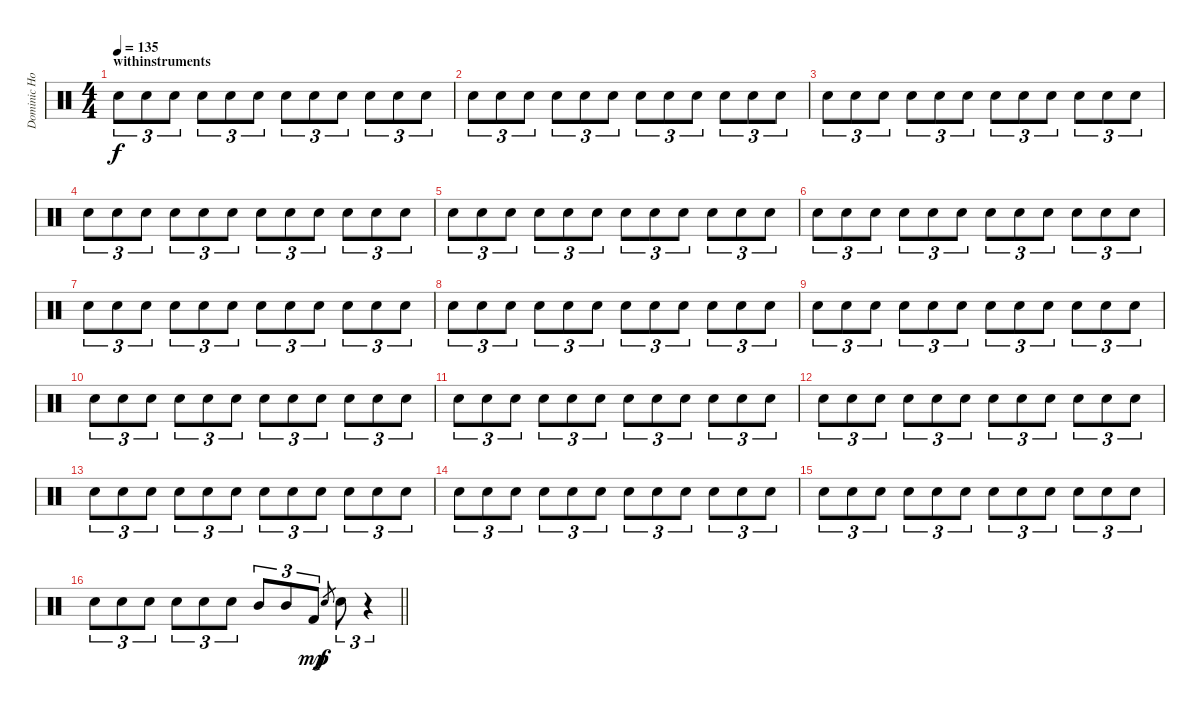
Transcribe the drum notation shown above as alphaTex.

\track ("Dominic Howard (Drums)" "Dominic Ho") {instrument percussion}
\staff {score}
\articulation defaults
\ts (4 4)
\section ("" "withinstruments")
\tempo 135
\clef neutral
\ks c "Electric Snare (hit)".8{tu (3 2) dy f volume 8} "Electric Snare (hit)".8{tu (3 2)} "Electric Snare (hit)".8{tu (3 2)} "Electric Snare (hit)".8{tu (3 2)} "Electric Snare (hit)".8{tu (3 2)} "Electric Snare (hit)".8{tu (3 2)} "Electric Snare (hit)".8{tu (3 2)} "Electric Snare (hit)".8{tu (3 2)} "Electric Snare (hit)".8{tu (3 2)} "Electric Snare (hit)".8{tu (3 2)} "Electric Snare (hit)".8{tu (3 2)} "Electric Snare (hit)".8{tu (3 2)}
|
"Electric Snare (hit)".8{tu (3 2)} "Electric Snare (hit)".8{tu (3 2)} "Electric Snare (hit)".8{tu (3 2)} "Electric Snare (hit)".8{tu (3 2)} "Electric Snare (hit)".8{tu (3 2)} "Electric Snare (hit)".8{tu (3 2)} "Electric Snare (hit)".8{tu (3 2)} "Electric Snare (hit)".8{tu (3 2)} "Electric Snare (hit)".8{tu (3 2)} "Electric Snare (hit)".8{tu (3 2)} "Electric Snare (hit)".8{tu (3 2)} "Electric Snare (hit)".8{tu (3 2)} |
"Electric Snare (hit)".8{tu (3 2) volume 9} "Electric Snare (hit)".8{tu (3 2)} "Electric Snare (hit)".8{tu (3 2)} "Electric Snare (hit)".8{tu (3 2)} "Electric Snare (hit)".8{tu (3 2)} "Electric Snare (hit)".8{tu (3 2)} "Electric Snare (hit)".8{tu (3 2)} "Electric Snare (hit)".8{tu (3 2)} "Electric Snare (hit)".8{tu (3 2)} "Electric Snare (hit)".8{tu (3 2)} "Electric Snare (hit)".8{tu (3 2)} "Electric Snare (hit)".8{tu (3 2)} |
"Electric Snare (hit)".8{tu (3 2)} "Electric Snare (hit)".8{tu (3 2)} "Electric Snare (hit)".8{tu (3 2)} "Electric Snare (hit)".8{tu (3 2)} "Electric Snare (hit)".8{tu (3 2)} "Electric Snare (hit)".8{tu (3 2)} "Electric Snare (hit)".8{tu (3 2)} "Electric Snare (hit)".8{tu (3 2)} "Electric Snare (hit)".8{tu (3 2)} "Electric Snare (hit)".8{tu (3 2)} "Electric Snare (hit)".8{tu (3 2)} "Electric Snare (hit)".8{tu (3 2)} |
"Electric Snare (hit)".8{tu (3 2) volume 10} "Electric Snare (hit)".8{tu (3 2)} "Electric Snare (hit)".8{tu (3 2)} "Electric Snare (hit)".8{tu (3 2)} "Electric Snare (hit)".8{tu (3 2)} "Electric Snare (hit)".8{tu (3 2)} "Electric Snare (hit)".8{tu (3 2)} "Electric Snare (hit)".8{tu (3 2)} "Electric Snare (hit)".8{tu (3 2)} "Electric Snare (hit)".8{tu (3 2)} "Electric Snare (hit)".8{tu (3 2)} "Electric Snare (hit)".8{tu (3 2)} |
"Electric Snare (hit)".8{tu (3 2)} "Electric Snare (hit)".8{tu (3 2)} "Electric Snare (hit)".8{tu (3 2)} "Electric Snare (hit)".8{tu (3 2)} "Electric Snare (hit)".8{tu (3 2)} "Electric Snare (hit)".8{tu (3 2)} "Electric Snare (hit)".8{tu (3 2)} "Electric Snare (hit)".8{tu (3 2)} "Electric Snare (hit)".8{tu (3 2)} "Electric Snare (hit)".8{tu (3 2)} "Electric Snare (hit)".8{tu (3 2)} "Electric Snare (hit)".8{tu (3 2)} |
"Electric Snare (hit)".8{tu (3 2) volume 11} "Electric Snare (hit)".8{tu (3 2)} "Electric Snare (hit)".8{tu (3 2)} "Electric Snare (hit)".8{tu (3 2)} "Electric Snare (hit)".8{tu (3 2)} "Electric Snare (hit)".8{tu (3 2)} "Electric Snare (hit)".8{tu (3 2)} "Electric Snare (hit)".8{tu (3 2)} "Electric Snare (hit)".8{tu (3 2)} "Electric Snare (hit)".8{tu (3 2)} "Electric Snare (hit)".8{tu (3 2)} "Electric Snare (hit)".8{tu (3 2)} |
"Electric Snare (hit)".8{tu (3 2)} "Electric Snare (hit)".8{tu (3 2)} "Electric Snare (hit)".8{tu (3 2)} "Electric Snare (hit)".8{tu (3 2)} "Electric Snare (hit)".8{tu (3 2)} "Electric Snare (hit)".8{tu (3 2)} "Electric Snare (hit)".8{tu (3 2)} "Electric Snare (hit)".8{tu (3 2)} "Electric Snare (hit)".8{tu (3 2)} "Electric Snare (hit)".8{tu (3 2)} "Electric Snare (hit)".8{tu (3 2)} "Electric Snare (hit)".8{tu (3 2)} |
"Electric Snare (hit)".8{tu (3 2) volume 12} "Electric Snare (hit)".8{tu (3 2)} "Electric Snare (hit)".8{tu (3 2)} "Electric Snare (hit)".8{tu (3 2)} "Electric Snare (hit)".8{tu (3 2)} "Electric Snare (hit)".8{tu (3 2)} "Electric Snare (hit)".8{tu (3 2)} "Electric Snare (hit)".8{tu (3 2)} "Electric Snare (hit)".8{tu (3 2)} "Electric Snare (hit)".8{tu (3 2)} "Electric Snare (hit)".8{tu (3 2)} "Electric Snare (hit)".8{tu (3 2)} |
"Electric Snare (hit)".8{tu (3 2)} "Electric Snare (hit)".8{tu (3 2)} "Electric Snare (hit)".8{tu (3 2)} "Electric Snare (hit)".8{tu (3 2)} "Electric Snare (hit)".8{tu (3 2)} "Electric Snare (hit)".8{tu (3 2)} "Electric Snare (hit)".8{tu (3 2)} "Electric Snare (hit)".8{tu (3 2)} "Electric Snare (hit)".8{tu (3 2)} "Electric Snare (hit)".8{tu (3 2)} "Electric Snare (hit)".8{tu (3 2)} "Electric Snare (hit)".8{tu (3 2)} |
"Electric Snare (hit)".8{tu (3 2) volume 14} "Electric Snare (hit)".8{tu (3 2)} "Electric Snare (hit)".8{tu (3 2)} "Electric Snare (hit)".8{tu (3 2)} "Electric Snare (hit)".8{tu (3 2)} "Electric Snare (hit)".8{tu (3 2)} "Electric Snare (hit)".8{tu (3 2)} "Electric Snare (hit)".8{tu (3 2)} "Electric Snare (hit)".8{tu (3 2)} "Electric Snare (hit)".8{tu (3 2)} "Electric Snare (hit)".8{tu (3 2)} "Electric Snare (hit)".8{tu (3 2)} |
"Electric Snare (hit)".8{tu (3 2)} "Electric Snare (hit)".8{tu (3 2)} "Electric Snare (hit)".8{tu (3 2)} "Electric Snare (hit)".8{tu (3 2)} "Electric Snare (hit)".8{tu (3 2)} "Electric Snare (hit)".8{tu (3 2)} "Electric Snare (hit)".8{tu (3 2)} "Electric Snare (hit)".8{tu (3 2)} "Electric Snare (hit)".8{tu (3 2)} "Electric Snare (hit)".8{tu (3 2)} "Electric Snare (hit)".8{tu (3 2)} "Electric Snare (hit)".8{tu (3 2)} |
"Electric Snare (hit)".8{tu (3 2) volume 15} "Electric Snare (hit)".8{tu (3 2)} "Electric Snare (hit)".8{tu (3 2)} "Electric Snare (hit)".8{tu (3 2)} "Electric Snare (hit)".8{tu (3 2)} "Electric Snare (hit)".8{tu (3 2)} "Electric Snare (hit)".8{tu (3 2)} "Electric Snare (hit)".8{tu (3 2)} "Electric Snare (hit)".8{tu (3 2)} "Electric Snare (hit)".8{tu (3 2)} "Electric Snare (hit)".8{tu (3 2)} "Electric Snare (hit)".8{tu (3 2)} |
"Electric Snare (hit)".8{tu (3 2)} "Electric Snare (hit)".8{tu (3 2)} "Electric Snare (hit)".8{tu (3 2)} "Electric Snare (hit)".8{tu (3 2)} "Electric Snare (hit)".8{tu (3 2)} "Electric Snare (hit)".8{tu (3 2)} "Electric Snare (hit)".8{tu (3 2)} "Electric Snare (hit)".8{tu (3 2)} "Electric Snare (hit)".8{tu (3 2)} "Electric Snare (hit)".8{tu (3 2)} "Electric Snare (hit)".8{tu (3 2)} "Electric Snare (hit)".8{tu (3 2)} |
"Electric Snare (hit)".8{tu (3 2) volume 16} "Electric Snare (hit)".8{tu (3 2)} "Electric Snare (hit)".8{tu (3 2)} "Electric Snare (hit)".8{tu (3 2)} "Electric Snare (hit)".8{tu (3 2)} "Electric Snare (hit)".8{tu (3 2)} "Electric Snare (hit)".8{tu (3 2)} "Electric Snare (hit)".8{tu (3 2)} "Electric Snare (hit)".8{tu (3 2)} "Electric Snare (hit)".8{tu (3 2)} "Electric Snare (hit)".8{tu (3 2)} "Electric Snare (hit)".8{tu (3 2)} |
\barLineRight lightlight "Electric Snare (hit)".8{tu (3 2)} "Electric Snare (hit)".8{tu (3 2)} "Electric Snare (hit)".8{tu (3 2)} "Electric Snare (hit)".8{tu (3 2)} "Electric Snare (hit)".8{tu (3 2)} "Electric Snare (hit)".8{tu (3 2)} "Mid Tom (hit)".8{tu (3 2)} "Mid Tom (hit)".8{tu (3 2)} "Kick (hit) 2".8{tu (3 2) dy mp} "Electric Snare (hit)".8{gr dy f} "Electric Snare (hit)".8{tu (3 2)}
r.4{tu (3 2)}
